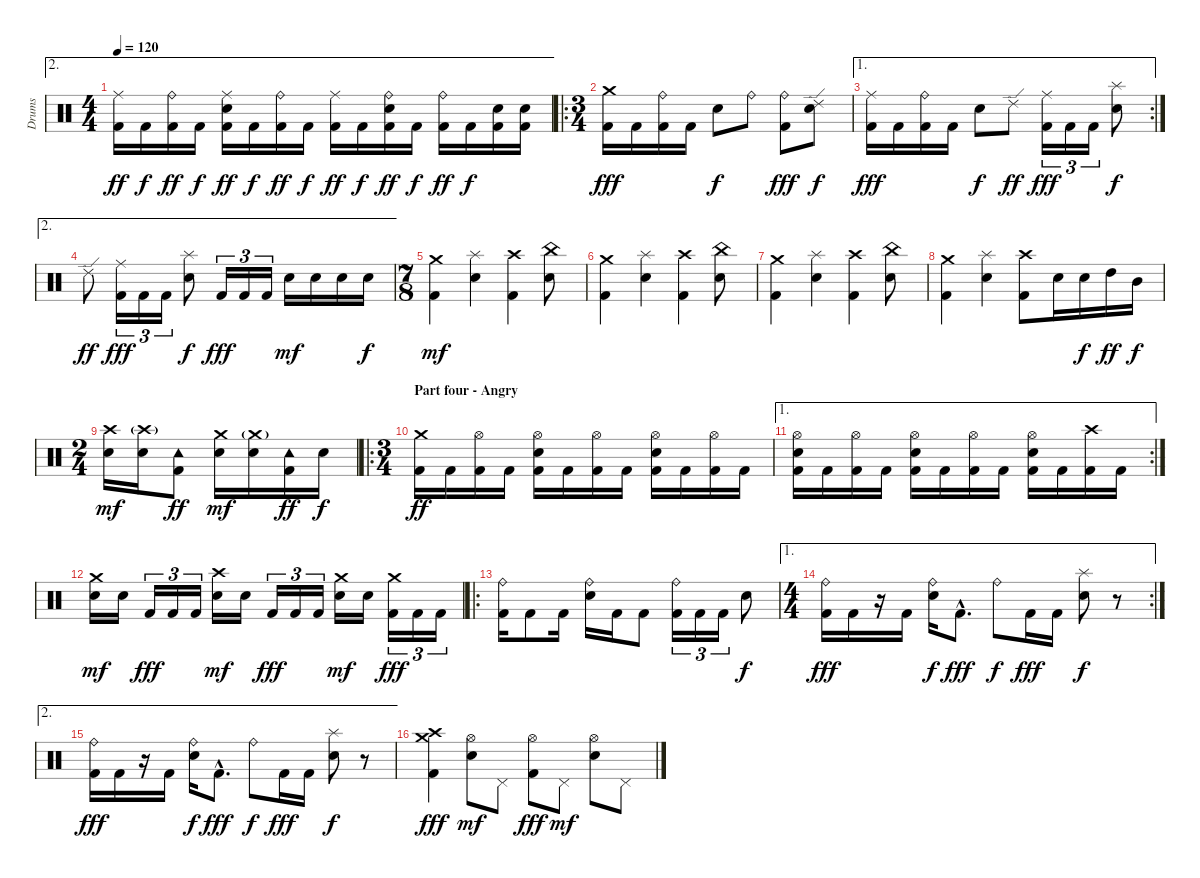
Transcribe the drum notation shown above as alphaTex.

\track ("Drums" "Drums") {instrument percussion}
\staff {score}
\articulation defaults
\ae 2
\ts (4 4)
\tempo 120
\clef neutral
\ks c
("Ride (middle)" "Kick (hit) 2").16{dy ff} "Kick (hit) 2".16{dy f} ("Ride (bell)" "Kick (hit) 2").16{dy ff} "Kick (hit) 2".16{dy f} ("Ride (middle)" "Electric Snare (hit)" "Kick (hit) 2").16{dy ff} "Kick (hit) 2".16{dy f} ("Ride (bell)" "Kick (hit) 2").16{dy ff} "Kick (hit) 2".16{dy f} ("Ride (middle)" "Kick (hit) 2").16{dy ff} "Kick (hit) 2".16{dy f} ("Ride (bell)" "Electric Snare (hit)" "Kick (hit) 2").16{dy ff} "Kick (hit) 2".16{dy f} ("Ride (bell)" "Kick (hit) 2").16{dy ff} "Kick (hit) 2".16{dy f} ("Electric Snare (hit)" "Kick (hit) 2").16 ("Electric Snare (hit)" "Kick (hit) 2").16 |
\ro
\ts (3 4)
("Crash medium (hit)" "Kick (hit) 2").16{dy fff} "Kick (hit) 2".16 ("Ride (bell)" "Kick (hit) 2").16 "Kick (hit) 2".16 "Electric Snare (hit)".8{dy f} "Ride (bell)".8 ("Ride (bell)" "Kick (hit) 2").8{dy fff} ("Ride (edge) 2" "Electric Snare (hit)").8{dy f} |
\ae 1
\rc 2
("Ride (middle)" "Kick (hit) 2").16{dy fff} "Kick (hit) 2".16 ("Ride (bell)" "Kick (hit) 2").16 "Kick (hit) 2".16 "Electric Snare (hit)".8{dy f} "Ride (edge) 2".8{dy ff} ("Ride (middle)" "Kick (hit) 2").16{tu (3 2) dy fff} "Kick (hit) 2".16{tu (3 2)} "Kick (hit) 2".16{tu (3 2)} ("Splash (hit)" "Electric Snare (hit)").8{dy f} |
\ae 2 "Ride (edge) 2".8{dy ff}
("Ride (middle)" "Kick (hit) 2").16{tu (3 2) dy fff} "Kick (hit) 2".16{tu (3 2)} "Kick (hit) 2".16{tu (3 2)} ("Splash (hit)" "Electric Snare (hit)").8{dy f} "Kick (hit) 2".16{tu (3 2) dy fff} "Kick (hit) 2".16{tu (3 2)} "Kick (hit) 2".16{tu (3 2)} "Electric Snare (hit)".16{dy mf} "Electric Snare (hit)".16 "Electric Snare (hit)".16 "Electric Snare (hit)".16{dy f} |
\ts (7 8)
("Crash medium (hit)" "Kick (hit) 2").4{dy mf} ("Splash (hit)" "Electric Snare (hit)").4 ("Crash high (hit)" "Kick (hit) 2").4 ("China (hit)" "Electric Snare (hit)").8 |
("Crash medium (hit)" "Kick (hit) 2").4 ("Splash (hit)" "Electric Snare (hit)").4 ("Crash high (hit)" "Kick (hit) 2").4 ("China (hit)" "Electric Snare (hit)").8 |
("Crash medium (hit)" "Kick (hit) 2").4 ("Splash (hit)" "Electric Snare (hit)").4 ("Crash high (hit)" "Kick (hit) 2").4 ("China (hit)" "Electric Snare (hit)").8 |
("Crash medium (hit)" "Kick (hit) 2").4 ("Splash (hit)" "Electric Snare (hit)").4 ("Crash high (hit)" "Kick (hit) 2").8 "Electric Snare (hit)".16 "Electric Snare (hit)".16{dy f} "High Tom (hit)".16{dy ff} "Mid Tom (hit)".16{dy f} |
\ts (2 4)
("Crash high (hit)" "Electric Snare (hit)").16{dy mf} ("Crash high (hit)"{g} "Electric Snare (hit)").16 ("Tambourine (hit)" "Kick (hit) 2").8{dy ff} ("Crash medium (hit)" "Electric Snare (hit)").16{dy mf} ("Crash medium (hit)"{g} "Electric Snare (hit)").16 ("Tambourine (hit)" "Kick (hit) 2").16{dy ff} "Electric Snare (hit)".16{dy f} |
\ro
\ts (3 4)
\section ("" "Part four - Angry")
("Crash medium (hit)" "Kick (hit) 2").16{dy ff} "Kick (hit) 2".16 ("Hi-Hat (open)" "Kick (hit) 2").16 "Kick (hit) 2".16 ("Hi-Hat (open)" "Electric Snare (hit)" "Kick (hit) 2").16 "Kick (hit) 2".16 ("Hi-Hat (open)" "Kick (hit) 2").16 "Kick (hit) 2".16 ("Hi-Hat (open)" "Electric Snare (hit)" "Kick (hit) 2").16 "Kick (hit) 2".16 ("Hi-Hat (open)" "Kick (hit) 2").16 "Kick (hit) 2".16 |
\ae 1
\rc 2
("Hi-Hat (open)" "Electric Snare (hit)" "Kick (hit) 2").16 "Kick (hit) 2".16 ("Hi-Hat (open)" "Kick (hit) 2").16 "Kick (hit) 2".16 ("Hi-Hat (open)" "Electric Snare (hit)" "Kick (hit) 2").16 "Kick (hit) 2".16 ("Hi-Hat (open)" "Kick (hit) 2").16 "Kick (hit) 2".16 ("Hi-Hat (open)" "Electric Snare (hit)" "Kick (hit) 2").16 "Kick (hit) 2".16 ("Crash high (hit)" "Kick (hit) 2").16 "Kick (hit) 2".16 |
("Crash medium (hit)" "Electric Snare (hit)").16{dy mf} "Electric Snare (hit)".16 "Kick (hit) 2".16{tu (3 2) dy fff} "Kick (hit) 2".16{tu (3 2)} "Kick (hit) 2".16{tu (3 2)} ("Crash high (hit)" "Electric Snare (hit)").16{dy mf} "Electric Snare (hit)".16 "Kick (hit) 2".16{tu (3 2) dy fff} "Kick (hit) 2".16{tu (3 2)} "Kick (hit) 2".16{tu (3 2)} ("Crash medium (hit)" "Electric Snare (hit)").16{dy mf} "Electric Snare (hit)".16 ("Crash medium (hit)" "Kick (hit) 2").16{tu (3 2) dy fff} "Kick (hit) 2".16{tu (3 2)} "Kick (hit) 2".16{tu (3 2)} |
\ro
("Ride (bell)" "Kick (hit) 2").16 "Kick (hit) 2".8 "Kick (hit) 2".16 ("Ride (bell)" "Electric Snare (hit)").16 "Kick (hit) 2".16 "Kick (hit) 2".8 ("Ride (bell)" "Kick (hit) 2").16{tu (3 2)} "Kick (hit) 2".16{tu (3 2)} "Kick (hit) 2".16{tu (3 2)} "Electric Snare (hit)".8{dy f} |
\ae 1
\rc 2
\ts (4 4)
("Ride (bell)" "Kick (hit) 2").16{dy fff} "Kick (hit) 2".16 r.16 "Kick (hit) 2".16 ("Ride (bell)" "Electric Snare (hit)").16{dy f} "Kick (hit) 2"{hac}.8{d dy fff} "Ride (bell)".8{dy f} "Kick (hit) 2".16{dy fff} "Kick (hit) 2".16 ("Splash (hit)" "Electric Snare (hit)").8{dy f} r.8 |
\ae 2
("Ride (bell)" "Kick (hit) 2").16{dy fff} "Kick (hit) 2".16 r.16 "Kick (hit) 2".16 ("Ride (bell)" "Electric Snare (hit)").16{dy f} "Kick (hit) 2"{hac}.8{d dy fff} "Ride (bell)".8{dy f} "Kick (hit) 2".16{dy fff} "Kick (hit) 2".16 ("Splash (hit)" "Electric Snare (hit)").8{dy f} r.8 |
("Crash high (hit)" "Crash medium (hit)" "Kick (hit) 2").4{dy fff} ("Hi-Hat (open)" "Electric Snare (hit)").8{dy mf} "Pedal Hi-Hat (hit)".8 ("Hi-Hat (open)" "Kick (hit) 2").8{dy fff} "Pedal Hi-Hat (hit)".8{dy mf} ("Hi-Hat (open)" "Electric Snare (hit)").8 "Pedal Hi-Hat (hit)".8
